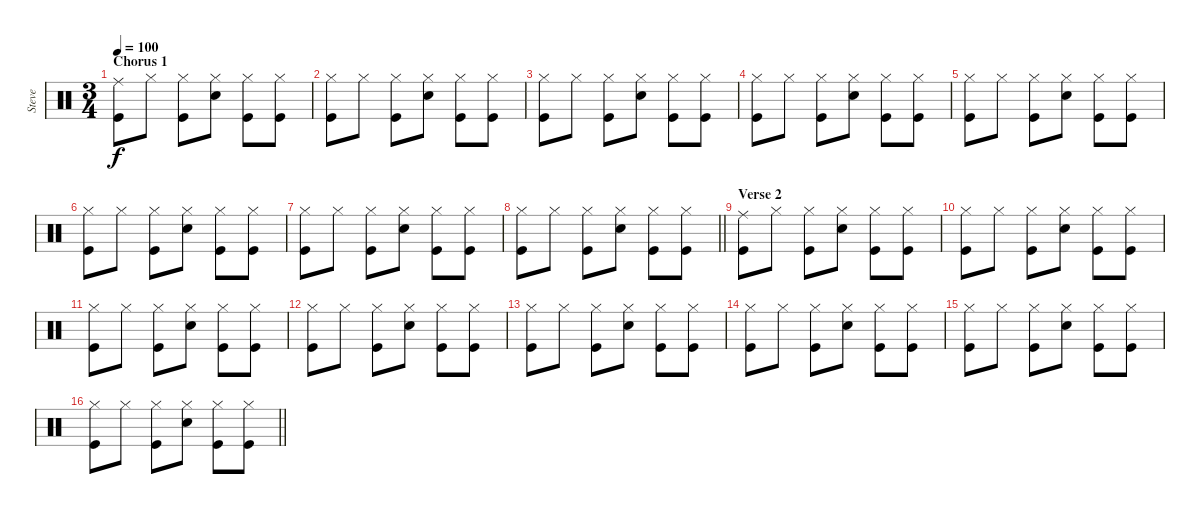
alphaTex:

\track ("Steve" "Steve") {instrument percussion}
\staff {score}
\articulation defaults
\ts (3 4)
\section ("" "Chorus 1")
\tempo 100
\clef neutral
\ks c
("Kick (hit)" "Ride (middle)").8{dy f} "Hi-Hat (closed)".8 ("Kick (hit)" "Hi-Hat (closed)").8 ("Snare (hit) 2" "Hi-Hat (closed)").8 ("Kick (hit)" "Hi-Hat (closed)").8 ("Kick (hit)" "Hi-Hat (closed)").8 |
("Kick (hit)" "Hi-Hat (closed)").8 "Hi-Hat (closed)".8 ("Kick (hit)" "Hi-Hat (closed)").8 ("Snare (hit) 2" "Hi-Hat (closed)").8 ("Kick (hit)" "Hi-Hat (closed)").8 ("Kick (hit)" "Hi-Hat (closed)").8 |
("Kick (hit)" "Hi-Hat (closed)").8 "Hi-Hat (closed)".8 ("Kick (hit)" "Hi-Hat (closed)").8 ("Snare (hit) 2" "Hi-Hat (closed)").8 ("Kick (hit)" "Hi-Hat (closed)").8 ("Kick (hit)" "Hi-Hat (closed)").8 |
("Kick (hit)" "Hi-Hat (closed)").8 "Hi-Hat (closed)".8 ("Kick (hit)" "Hi-Hat (closed)").8 ("Snare (hit) 2" "Hi-Hat (closed)").8 ("Kick (hit)" "Hi-Hat (closed)").8 ("Kick (hit)" "Hi-Hat (closed)").8 |
("Kick (hit)" "Hi-Hat (closed)").8 "Hi-Hat (closed)".8 ("Kick (hit)" "Hi-Hat (closed)").8 ("Snare (hit) 2" "Hi-Hat (closed)").8 ("Kick (hit)" "Hi-Hat (closed)").8 ("Kick (hit)" "Hi-Hat (closed)").8 |
("Kick (hit)" "Hi-Hat (closed)").8 "Hi-Hat (closed)".8 ("Kick (hit)" "Hi-Hat (closed)").8 ("Snare (hit) 2" "Hi-Hat (closed)").8 ("Kick (hit)" "Hi-Hat (closed)").8 ("Kick (hit)" "Hi-Hat (closed)").8 |
("Kick (hit)" "Hi-Hat (closed)").8 "Hi-Hat (closed)".8 ("Kick (hit)" "Hi-Hat (closed)").8 ("Snare (hit) 2" "Hi-Hat (closed)").8 ("Kick (hit)" "Hi-Hat (closed)").8 ("Kick (hit)" "Hi-Hat (closed)").8 |
\barLineRight lightlight
("Kick (hit)" "Hi-Hat (closed)").8 "Hi-Hat (closed)".8 ("Kick (hit)" "Hi-Hat (closed)").8 ("Snare (hit) 2" "Hi-Hat (closed)").8 ("Kick (hit)" "Hi-Hat (closed)").8 ("Kick (hit)" "Hi-Hat (closed)").8 |
\section ("" "Verse 2")
("Kick (hit)" "Ride (middle)").8 "Hi-Hat (closed)".8 ("Kick (hit)" "Hi-Hat (closed)").8 ("Snare (hit) 2" "Hi-Hat (closed)").8 ("Kick (hit)" "Hi-Hat (closed)").8 ("Kick (hit)" "Hi-Hat (closed)").8 |
("Kick (hit)" "Hi-Hat (closed)").8 "Hi-Hat (closed)".8 ("Kick (hit)" "Hi-Hat (closed)").8 ("Snare (hit) 2" "Hi-Hat (closed)").8 ("Kick (hit)" "Hi-Hat (closed)").8 ("Kick (hit)" "Hi-Hat (closed)").8 |
("Kick (hit)" "Hi-Hat (closed)").8 "Hi-Hat (closed)".8 ("Kick (hit)" "Hi-Hat (closed)").8 ("Snare (hit) 2" "Hi-Hat (closed)").8 ("Kick (hit)" "Hi-Hat (closed)").8 ("Kick (hit)" "Hi-Hat (closed)").8 |
("Kick (hit)" "Hi-Hat (closed)").8 "Hi-Hat (closed)".8 ("Kick (hit)" "Hi-Hat (closed)").8 ("Snare (hit) 2" "Hi-Hat (closed)").8 ("Kick (hit)" "Hi-Hat (closed)").8 ("Kick (hit)" "Hi-Hat (closed)").8 |
("Kick (hit)" "Hi-Hat (closed)").8 "Hi-Hat (closed)".8 ("Kick (hit)" "Hi-Hat (closed)").8 ("Snare (hit) 2" "Hi-Hat (closed)").8 ("Kick (hit)" "Hi-Hat (closed)").8 ("Kick (hit)" "Hi-Hat (closed)").8 |
("Kick (hit)" "Hi-Hat (closed)").8 "Hi-Hat (closed)".8 ("Kick (hit)" "Hi-Hat (closed)").8 ("Snare (hit) 2" "Hi-Hat (closed)").8 ("Kick (hit)" "Hi-Hat (closed)").8 ("Kick (hit)" "Hi-Hat (closed)").8 |
("Kick (hit)" "Hi-Hat (closed)").8 "Hi-Hat (closed)".8 ("Kick (hit)" "Hi-Hat (closed)").8 ("Snare (hit) 2" "Hi-Hat (closed)").8 ("Kick (hit)" "Hi-Hat (closed)").8 ("Kick (hit)" "Hi-Hat (closed)").8 |
\barLineRight lightlight
("Kick (hit)" "Hi-Hat (closed)").8 "Hi-Hat (closed)".8 ("Kick (hit)" "Hi-Hat (closed)").8 ("Snare (hit) 2" "Hi-Hat (closed)").8 ("Kick (hit)" "Hi-Hat (closed)").8 ("Kick (hit)" "Hi-Hat (closed)").8
